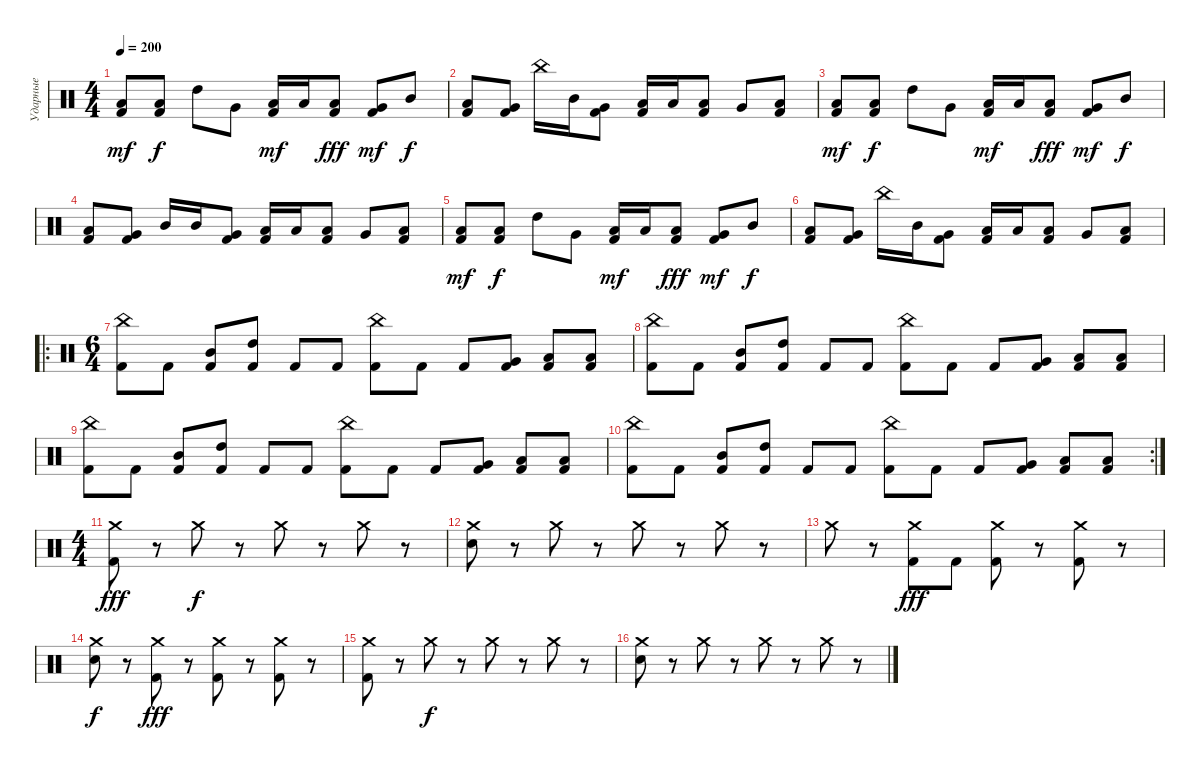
\track ("Ударные" "Ударные") {instrument percussion}
\staff {score}
\articulation defaults
\ts (4 4)
\tempo 200
\clef neutral
\ks c
("Low Floor Tom (hit)" "Kick (hit) 2").8{dy mf} ("Low Floor Tom (hit)" "Kick (hit) 2").8{dy f} "High Tom (hit)".8 "Very Low Tom (hit)".8 ("Low Tom (hit)" "Kick (hit) 2").16{dy mf} "Low Tom (hit)".16 ("Low Floor Tom (hit)" "Kick (hit) 2").8{dy fff} ("Very Low Tom (hit)" "Kick (hit) 2").8{dy mf} "Mid Tom (hit)".8{dy f} |
("Low Floor Tom (hit)" "Kick (hit) 2").8 ("Very Low Tom (hit)" "Kick (hit) 2").8 "China (hit)".16 "Mid Tom (hit)".16 ("Very Low Tom (hit)" "Kick (hit) 2").8 ("Low Tom (hit)" "Kick (hit) 2").16 "Low Tom (hit)".16 ("Low Floor Tom (hit)" "Kick (hit) 2").8 "Very Low Tom (hit)".8 ("Low Tom (hit)" "Kick (hit) 2").8 |
("Low Floor Tom (hit)" "Kick (hit) 2").8{dy mf} ("Low Floor Tom (hit)" "Kick (hit) 2").8{dy f} "High Tom (hit)".8 "Very Low Tom (hit)".8 ("Low Tom (hit)" "Kick (hit) 2").16{dy mf} "Low Tom (hit)".16 ("Low Floor Tom (hit)" "Kick (hit) 2").8{dy fff} ("Very Low Tom (hit)" "Kick (hit) 2").8{dy mf} "Mid Tom (hit)".8{dy f} |
("Low Floor Tom (hit)" "Kick (hit) 2").8 ("Very Low Tom (hit)" "Kick (hit) 2").8 "Mid Tom (hit)".16 "Mid Tom (hit)".16 ("Very Low Tom (hit)" "Kick (hit) 2").8 ("Low Tom (hit)" "Kick (hit) 2").16 "Low Tom (hit)".16 ("Low Floor Tom (hit)" "Kick (hit) 2").8 "Very Low Tom (hit)".8 ("Low Tom (hit)" "Kick (hit) 2").8 |
("Low Floor Tom (hit)" "Kick (hit) 2").8{dy mf} ("Low Floor Tom (hit)" "Kick (hit) 2").8{dy f} "High Tom (hit)".8 "Very Low Tom (hit)".8 ("Low Tom (hit)" "Kick (hit) 2").16{dy mf} "Low Tom (hit)".16 ("Low Floor Tom (hit)" "Kick (hit) 2").8{dy fff} ("Very Low Tom (hit)" "Kick (hit) 2").8{dy mf} "Mid Tom (hit)".8{dy f} |
("Low Floor Tom (hit)" "Kick (hit) 2").8 ("Very Low Tom (hit)" "Kick (hit) 2").8 "China (hit)".16 "Mid Tom (hit)".16 ("Very Low Tom (hit)" "Kick (hit) 2").8 ("Low Tom (hit)" "Kick (hit) 2").16 "Low Tom (hit)".16 ("Low Floor Tom (hit)" "Kick (hit) 2").8 "Very Low Tom (hit)".8 ("Low Tom (hit)" "Kick (hit) 2").8 |
\ro
\ts (6 4)
("China (hit)" "Kick (hit) 2").8 "Kick (hit) 2".8 ("Mid Tom (hit)" "Kick (hit) 2").8 ("High Tom (hit)" "Kick (hit) 2").8 "Kick (hit) 2".8 "Kick (hit) 2".8 ("China (hit)" "Kick (hit) 2").8 "Kick (hit) 2".8 "Kick (hit) 2".8 ("Very Low Tom (hit)" "Kick (hit) 2").8 ("Low Floor Tom (hit)" "Kick (hit) 2").8 ("Low Tom (hit)" "Kick (hit) 2").8 |
("China (hit)" "Kick (hit) 2").8 "Kick (hit) 2".8 ("Mid Tom (hit)" "Kick (hit) 2").8 ("High Tom (hit)" "Kick (hit) 2").8 "Kick (hit) 2".8 "Kick (hit) 2".8 ("China (hit)" "Kick (hit) 2").8 "Kick (hit) 2".8 "Kick (hit) 2".8 ("Very Low Tom (hit)" "Kick (hit) 2").8 ("Low Floor Tom (hit)" "Kick (hit) 2").8 ("Low Tom (hit)" "Kick (hit) 2").8 |
("China (hit)" "Kick (hit) 2").8 "Kick (hit) 2".8 ("Mid Tom (hit)" "Kick (hit) 2").8 ("High Tom (hit)" "Kick (hit) 2").8 "Kick (hit) 2".8 "Kick (hit) 2".8 ("China (hit)" "Kick (hit) 2").8 "Kick (hit) 2".8 "Kick (hit) 2".8 ("Very Low Tom (hit)" "Kick (hit) 2").8 ("Low Floor Tom (hit)" "Kick (hit) 2").8 ("Low Tom (hit)" "Kick (hit) 2").8 |
\rc 2
("China (hit)" "Kick (hit) 2").8 "Kick (hit) 2".8 ("Mid Tom (hit)" "Kick (hit) 2").8 ("High Tom (hit)" "Kick (hit) 2").8 "Kick (hit) 2".8 "Kick (hit) 2".8 ("China (hit)" "Kick (hit) 2").8 "Kick (hit) 2".8 "Kick (hit) 2".8 ("Very Low Tom (hit)" "Kick (hit) 2").8 ("Low Floor Tom (hit)" "Kick (hit) 2").8 ("Low Tom (hit)" "Kick (hit) 2").8 |
\ts (4 4)
("Crash medium (hit)" "Kick (hit) 2").8{dy fff} r.8 "Crash medium (hit)".8{dy f} r.8 "Crash medium (hit)".8 r.8 "Crash medium (hit)".8 r.8 |
("Crash medium (hit)" "Electric Snare (hit)").8 r.8 "Crash medium (hit)".8 r.8 "Crash medium (hit)".8 r.8 "Crash medium (hit)".8 r.8 |
"Crash medium (hit)".8 r.8 ("Crash medium (hit)" "Kick (hit) 2").8{dy fff} "Kick (hit) 2".8 ("Crash medium (hit)" "Kick (hit) 2").8 r.8 ("Crash medium (hit)" "Kick (hit) 2").8 r.8 |
("Crash medium (hit)" "Electric Snare (hit)").8{dy f} r.8 ("Crash medium (hit)" "Kick (hit) 2").8{dy fff} r.8 ("Crash medium (hit)" "Kick (hit) 2").8 r.8 ("Crash medium (hit)" "Kick (hit) 2").8 r.8 |
("Crash medium (hit)" "Kick (hit) 2").8 r.8 "Crash medium (hit)".8{dy f} r.8 "Crash medium (hit)".8 r.8 "Crash medium (hit)".8 r.8 |
("Crash medium (hit)" "Electric Snare (hit)").8 r.8 "Crash medium (hit)".8 r.8 "Crash medium (hit)".8 r.8 "Crash medium (hit)".8 r.8
